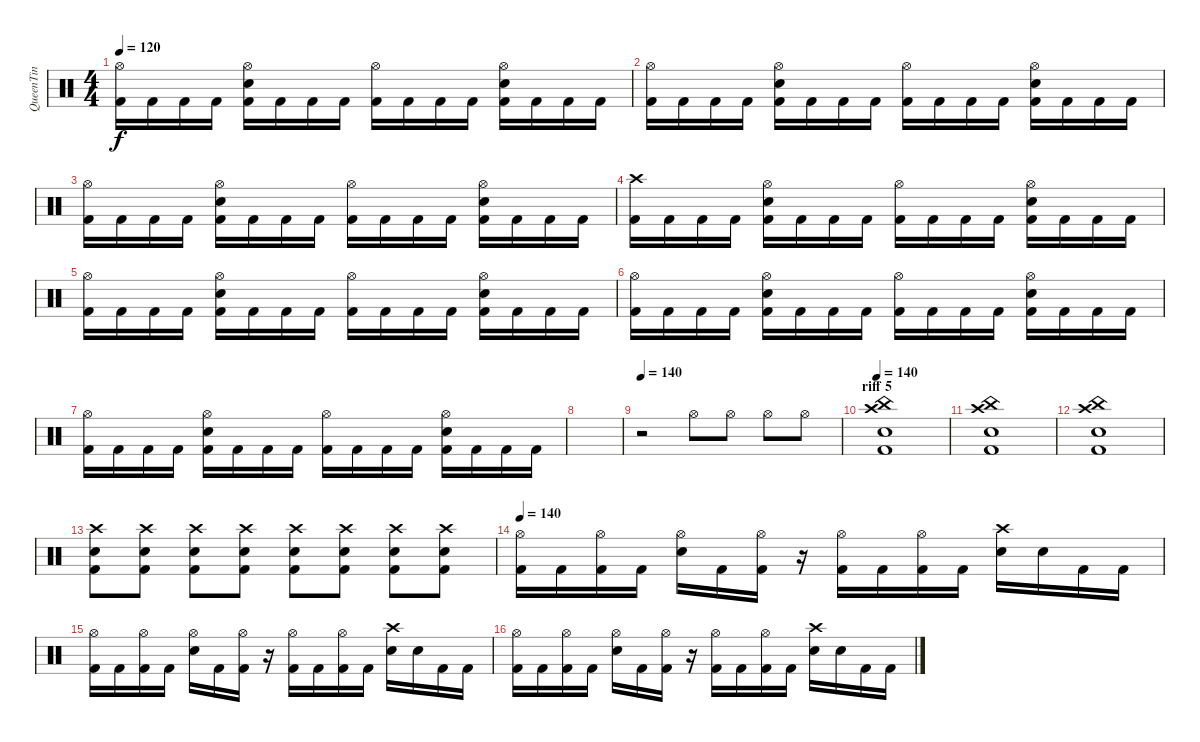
\track ("QueenTin" "QueenTin") {instrument percussion}
\staff {score}
\articulation defaults
\ts (4 4)
\tempo 120
\clef neutral
\ks c
("Hi-Hat (open)" "Kick (hit) 2").16{dy f} "Kick (hit) 2".16 "Kick (hit) 2".16 "Kick (hit) 2".16 ("Hi-Hat (open)" "Snare (hit) 2" "Kick (hit) 2").16 "Kick (hit) 2".16 "Kick (hit) 2".16 "Kick (hit) 2".16 ("Hi-Hat (open)" "Kick (hit) 2").16 "Kick (hit) 2".16 "Kick (hit) 2".16 "Kick (hit) 2".16 ("Hi-Hat (open)" "Snare (hit) 2" "Kick (hit) 2").16 "Kick (hit) 2".16 "Kick (hit) 2".16 "Kick (hit) 2".16 |
("Hi-Hat (open)" "Kick (hit) 2").16 "Kick (hit) 2".16 "Kick (hit) 2".16 "Kick (hit) 2".16 ("Hi-Hat (open)" "Snare (hit) 2" "Kick (hit) 2").16 "Kick (hit) 2".16 "Kick (hit) 2".16 "Kick (hit) 2".16 ("Hi-Hat (open)" "Kick (hit) 2").16 "Kick (hit) 2".16 "Kick (hit) 2".16 "Kick (hit) 2".16 ("Hi-Hat (open)" "Snare (hit) 2" "Kick (hit) 2").16 "Kick (hit) 2".16 "Kick (hit) 2".16 "Kick (hit) 2".16 |
("Hi-Hat (open)" "Kick (hit) 2").16 "Kick (hit) 2".16 "Kick (hit) 2".16 "Kick (hit) 2".16 ("Hi-Hat (open)" "Snare (hit) 2" "Kick (hit) 2").16 "Kick (hit) 2".16 "Kick (hit) 2".16 "Kick (hit) 2".16 ("Hi-Hat (open)" "Kick (hit) 2").16 "Kick (hit) 2".16 "Kick (hit) 2".16 "Kick (hit) 2".16 ("Hi-Hat (open)" "Snare (hit) 2" "Kick (hit) 2").16 "Kick (hit) 2".16 "Kick (hit) 2".16 "Kick (hit) 2".16 |
("Crash high (hit)" "Kick (hit) 2").16 "Kick (hit) 2".16 "Kick (hit) 2".16 "Kick (hit) 2".16 ("Hi-Hat (open)" "Snare (hit) 2" "Kick (hit) 2").16 "Kick (hit) 2".16 "Kick (hit) 2".16 "Kick (hit) 2".16 ("Hi-Hat (open)" "Kick (hit) 2").16 "Kick (hit) 2".16 "Kick (hit) 2".16 "Kick (hit) 2".16 ("Hi-Hat (open)" "Snare (hit) 2" "Kick (hit) 2").16 "Kick (hit) 2".16 "Kick (hit) 2".16 "Kick (hit) 2".16 |
("Hi-Hat (open)" "Kick (hit) 2").16 "Kick (hit) 2".16 "Kick (hit) 2".16 "Kick (hit) 2".16 ("Hi-Hat (open)" "Snare (hit) 2" "Kick (hit) 2").16 "Kick (hit) 2".16 "Kick (hit) 2".16 "Kick (hit) 2".16 ("Hi-Hat (open)" "Kick (hit) 2").16 "Kick (hit) 2".16 "Kick (hit) 2".16 "Kick (hit) 2".16 ("Hi-Hat (open)" "Snare (hit) 2" "Kick (hit) 2").16 "Kick (hit) 2".16 "Kick (hit) 2".16 "Kick (hit) 2".16 |
("Hi-Hat (open)" "Kick (hit) 2").16 "Kick (hit) 2".16 "Kick (hit) 2".16 "Kick (hit) 2".16 ("Hi-Hat (open)" "Snare (hit) 2" "Kick (hit) 2").16 "Kick (hit) 2".16 "Kick (hit) 2".16 "Kick (hit) 2".16 ("Hi-Hat (open)" "Kick (hit) 2").16 "Kick (hit) 2".16 "Kick (hit) 2".16 "Kick (hit) 2".16 ("Hi-Hat (open)" "Snare (hit) 2" "Kick (hit) 2").16 "Kick (hit) 2".16 "Kick (hit) 2".16 "Kick (hit) 2".16 |
("Hi-Hat (open)" "Kick (hit) 2").16 "Kick (hit) 2".16 "Kick (hit) 2".16 "Kick (hit) 2".16 ("Hi-Hat (open)" "Snare (hit) 2" "Kick (hit) 2").16 "Kick (hit) 2".16 "Kick (hit) 2".16 "Kick (hit) 2".16 ("Hi-Hat (open)" "Kick (hit) 2").16 "Kick (hit) 2".16 "Kick (hit) 2".16 "Kick (hit) 2".16 ("Hi-Hat (open)" "Snare (hit) 2" "Kick (hit) 2").16 "Kick (hit) 2".16 "Kick (hit) 2".16 "Kick (hit) 2".16 |
|
\tempo 140
r.2 "Hi-Hat (open)".8 "Hi-Hat (open)".8 "Hi-Hat (open)".8 "Hi-Hat (open)".8 |
\section ("" "riff 5 ")
\tempo 140
("Crash high (hit)" "China (hit)" "Snare (hit) 2" "Kick (hit) 2").1 |
("Crash high (hit)" "China (hit)" "Snare (hit) 2" "Kick (hit) 2").1 |
("Crash high (hit)" "China (hit)" "Snare (hit) 2" "Kick (hit) 2").1 |
("Crash high (hit)" "Snare (hit) 2" "Kick (hit) 2").8 ("Crash high (hit)" "Snare (hit) 2" "Kick (hit) 2").8 ("Crash high (hit)" "Snare (hit) 2" "Kick (hit) 2").8 ("Crash high (hit)" "Snare (hit) 2" "Kick (hit) 2").8 ("Crash high (hit)" "Snare (hit) 2" "Kick (hit) 2").8 ("Crash high (hit)" "Snare (hit) 2" "Kick (hit) 2").8 ("Crash high (hit)" "Snare (hit) 2" "Kick (hit) 2").8 ("Crash high (hit)" "Snare (hit) 2" "Kick (hit) 2").8 |
\tempo 140
("Hi-Hat (open)" "Kick (hit) 2").16 "Kick (hit) 2".16 ("Hi-Hat (open)" "Kick (hit) 2").16 "Kick (hit) 2".16 ("Hi-Hat (open)" "Snare (hit) 2").16 "Kick (hit) 2".16 ("Hi-Hat (open)" "Kick (hit) 2").16 r.16 ("Hi-Hat (open)" "Kick (hit) 2").16 "Kick (hit) 2".16 ("Hi-Hat (open)" "Kick (hit) 2").16 "Kick (hit) 2".16 ("Crash high (hit)" "Snare (hit) 2").16 "Snare (hit) 2".16 "Kick (hit) 2".16 "Kick (hit) 2".16 |
("Hi-Hat (open)" "Kick (hit) 2").16 "Kick (hit) 2".16 ("Hi-Hat (open)" "Kick (hit) 2").16 "Kick (hit) 2".16 ("Hi-Hat (open)" "Snare (hit) 2").16 "Kick (hit) 2".16 ("Hi-Hat (open)" "Kick (hit) 2").16 r.16 ("Hi-Hat (open)" "Kick (hit) 2").16 "Kick (hit) 2".16 ("Hi-Hat (open)" "Kick (hit) 2").16 "Kick (hit) 2".16 ("Crash high (hit)" "Snare (hit) 2").16 "Snare (hit) 2".16 "Kick (hit) 2".16 "Kick (hit) 2".16 |
("Hi-Hat (open)" "Kick (hit) 2").16 "Kick (hit) 2".16 ("Hi-Hat (open)" "Kick (hit) 2").16 "Kick (hit) 2".16 ("Hi-Hat (open)" "Snare (hit) 2").16 "Kick (hit) 2".16 ("Hi-Hat (open)" "Kick (hit) 2").16 r.16 ("Hi-Hat (open)" "Kick (hit) 2").16 "Kick (hit) 2".16 ("Hi-Hat (open)" "Kick (hit) 2").16 "Kick (hit) 2".16 ("Crash high (hit)" "Snare (hit) 2").16 "Snare (hit) 2".16 "Kick (hit) 2".16 "Kick (hit) 2".16
